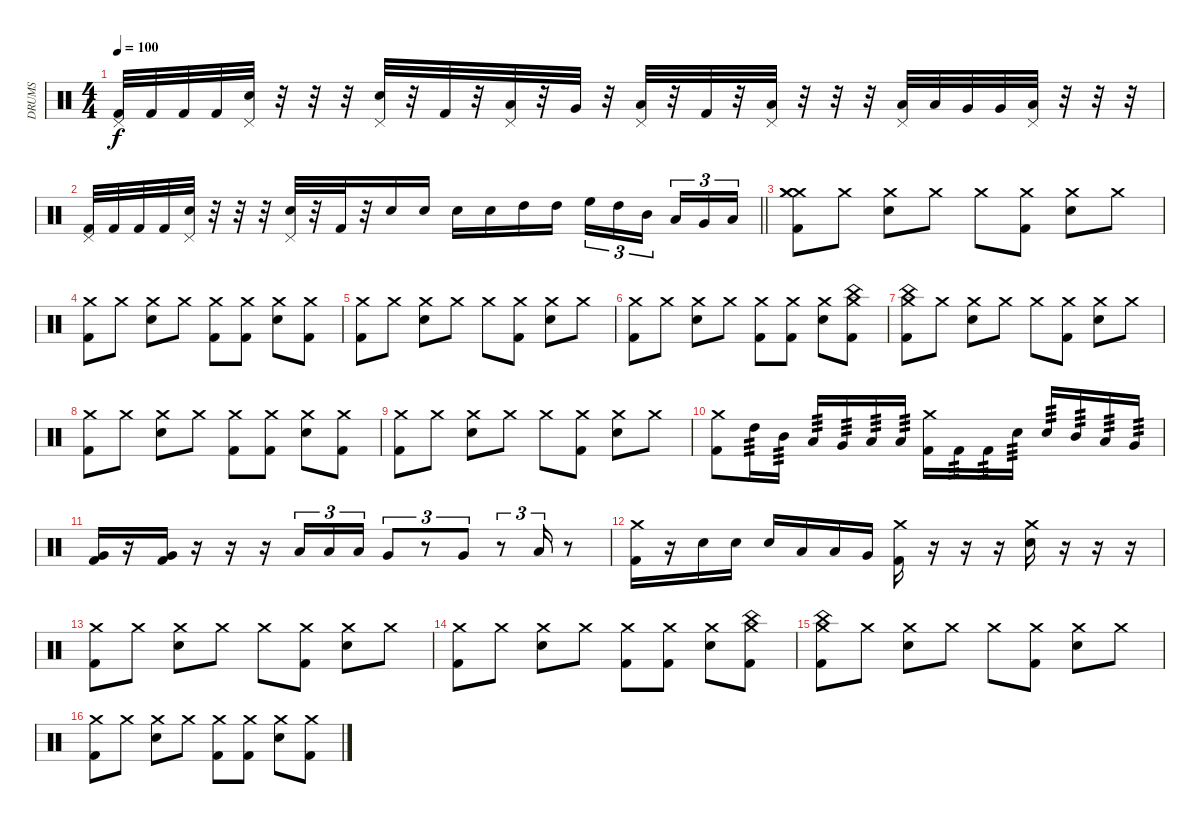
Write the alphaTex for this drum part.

\track ("DRUMS" "DRUMS") {instrument percussion}
\staff {score}
\articulation defaults
\ts (4 4)
\tempo 100
\clef neutral
\ks c
("Pedal Hi-Hat (hit)" "Kick (hit) 2").32{dy f} "Kick (hit) 2".32 "Kick (hit) 2".32 "Kick (hit) 2".32 ("Pedal Hi-Hat (hit)" "Electric Snare (hit)").32 r.32 r.32 r.32 ("Pedal Hi-Hat (hit)" "Electric Snare (hit)").32 r.32 "Kick (hit) 2".32 r.32 ("Pedal Hi-Hat (hit)" "Low Tom (hit)").32 r.32 "Very Low Tom (hit)".32 r.32 ("Pedal Hi-Hat (hit)" "Low Floor Tom (hit)").32 r.32 "Kick (hit) 2".32 r.32 ("Pedal Hi-Hat (hit)" "Low Floor Tom (hit)").32 r.32 r.32 r.32 ("Pedal Hi-Hat (hit)" "Low Tom (hit)").32 "Low Tom (hit)".32 "Very Low Tom (hit)".32 "Very Low Tom (hit)".32 ("Pedal Hi-Hat (hit)" "Low Floor Tom (hit)").32 r.32 r.32 r.32 |
\barLineRight lightlight
("Pedal Hi-Hat (hit)" "Kick (hit) 2").32 "Kick (hit) 2".32 "Kick (hit) 2".32 "Kick (hit) 2".32 ("Pedal Hi-Hat (hit)" "Electric Snare (hit)").32 r.32 r.32 r.32 ("Pedal Hi-Hat (hit)" "Electric Snare (hit)").32 r.32 "Kick (hit) 2".32 r.32 "Electric Snare (hit)".16 "Electric Snare (hit)".16 "Electric Snare (hit)".16 "Electric Snare (hit)".16 "High Tom (hit)".16 "High Tom (hit)".16 "High Floor Tom (hit)".16{tu (3 2)} "High Tom (hit)".16{tu (3 2)} "Mid Tom (hit)".16{tu (3 2) beam splitsecondary} "Low Tom (hit)".16{tu (3 2)} "Very Low Tom (hit)".16{tu (3 2)} "Low Floor Tom (hit)".16{tu (3 2)} |
("Crash medium (hit)" "Crash medium (hit)" "Crash medium (hit)" "Kick (hit) 2").8 "Crash medium (hit)".8 ("Crash medium (hit)" "Electric Snare (hit)").8 "Crash medium (hit)".8 "Crash medium (hit)".8 ("Crash medium (hit)" "Kick (hit) 2").8 ("Crash medium (hit)" "Electric Snare (hit)").8 "Crash medium (hit)".8 |
("Crash medium (hit)" "Kick (hit) 2").8 "Crash medium (hit)".8 ("Crash medium (hit)" "Electric Snare (hit)").8 "Crash medium (hit)".8 ("Crash medium (hit)" "Kick (hit) 2").8 ("Crash medium (hit)" "Kick (hit) 2").8 ("Crash medium (hit)" "Electric Snare (hit)").8 ("Crash medium (hit)" "Kick (hit) 2").8 |
("Crash medium (hit)" "Kick (hit) 2").8 "Crash medium (hit)".8 ("Crash medium (hit)" "Electric Snare (hit)").8 "Crash medium (hit)".8 "Crash medium (hit)".8 ("Crash medium (hit)" "Kick (hit) 2").8 ("Crash medium (hit)" "Electric Snare (hit)").8 "Crash medium (hit)".8 |
("Crash medium (hit)" "Kick (hit) 2").8 "Crash medium (hit)".8 ("Crash medium (hit)" "Electric Snare (hit)").8 "Crash medium (hit)".8 ("Crash medium (hit)" "Kick (hit) 2").8 ("Crash medium (hit)" "Kick (hit) 2").8 ("Crash medium (hit)" "Electric Snare (hit)").8 ("Crash medium (hit)" "China (hit)" "Kick (hit) 2").8 |
("Crash medium (hit)" "China (hit)" "Kick (hit) 2").8 "Crash medium (hit)".8 ("Crash medium (hit)" "Electric Snare (hit)").8 "Crash medium (hit)".8 "Crash medium (hit)".8 ("Crash medium (hit)" "Kick (hit) 2").8 ("Crash medium (hit)" "Electric Snare (hit)").8 "Crash medium (hit)".8 |
("Crash medium (hit)" "Kick (hit) 2").8 "Crash medium (hit)".8 ("Crash medium (hit)" "Electric Snare (hit)").8 "Crash medium (hit)".8 ("Crash medium (hit)" "Kick (hit) 2").8 ("Crash medium (hit)" "Kick (hit) 2").8 ("Crash medium (hit)" "Electric Snare (hit)").8 ("Crash medium (hit)" "Kick (hit) 2").8 |
("Crash medium (hit)" "Kick (hit) 2").8 "Crash medium (hit)".8 ("Crash medium (hit)" "Electric Snare (hit)").8 "Crash medium (hit)".8 "Crash medium (hit)".8 ("Crash medium (hit)" "Kick (hit) 2").8 ("Crash medium (hit)" "Electric Snare (hit)").8 "Crash medium (hit)".8 |
("Crash medium (hit)" "Kick (hit) 2").8 "High Tom (hit)".16{tp 3} "Mid Tom (hit)".16{tp 3} "Low Tom (hit)".16{tp 3} "Very Low Tom (hit)".16{tp 3} "Low Floor Tom (hit)".16{tp 3} "Low Floor Tom (hit)".16{tp 3} ("Crash medium (hit)" "Kick (hit) 2").16 "Kick (hit) 2".16{tp 3} "Kick (hit) 2".16{tp 3} "Electric Snare (hit)".16{tp 3} "Electric Snare (hit)".16{tp 3} "Mid Tom (hit)".16{tp 3} "Low Tom (hit)".16{tp 3} "Very Low Tom (hit)".16{tp 3} |
("Very Low Tom (hit)" "Kick (hit) 2").16 r.16 ("Very Low Tom (hit)" "Kick (hit) 2").16 r.16 r.16 r.16 "Low Tom (hit)".16{tu (3 2)} "Low Tom (hit)".16{tu (3 2)} "Low Tom (hit)".16{tu (3 2)} "Very Low Tom (hit)".8{tu (3 2)} r.8{tu (3 2)} "Very Low Tom (hit)".8{tu (3 2)} r.8{tu (3 2)} "Low Floor Tom (hit)".16{tu (3 2)} r.8 |
("Crash medium (hit)" "Kick (hit) 2").16 r.16 "Electric Snare (hit)".16 "Electric Snare (hit)".16 "Electric Snare (hit)".16 "Low Tom (hit)".16 "Low Tom (hit)".16 "Very Low Tom (hit)".16 ("Crash medium (hit)" "Kick (hit) 2").16 r.16 r.16 r.16 ("Crash medium (hit)" "Electric Snare (hit)").16 r.16 r.16 r.16 |
("Crash medium (hit)" "Kick (hit) 2").8 "Crash medium (hit)".8 ("Crash medium (hit)" "Electric Snare (hit)").8 "Crash medium (hit)".8 "Crash medium (hit)".8 ("Crash medium (hit)" "Kick (hit) 2").8 ("Crash medium (hit)" "Electric Snare (hit)").8 "Crash medium (hit)".8 |
("Crash medium (hit)" "Kick (hit) 2").8 "Crash medium (hit)".8 ("Crash medium (hit)" "Electric Snare (hit)").8 "Crash medium (hit)".8 ("Crash medium (hit)" "Kick (hit) 2").8 ("Crash medium (hit)" "Kick (hit) 2").8 ("Crash medium (hit)" "Electric Snare (hit)").8 ("Crash medium (hit)" "China (hit)" "Kick (hit) 2").8 |
("Crash medium (hit)" "China (hit)" "Kick (hit) 2").8 "Crash medium (hit)".8 ("Crash medium (hit)" "Electric Snare (hit)").8 "Crash medium (hit)".8 "Crash medium (hit)".8 ("Crash medium (hit)" "Kick (hit) 2").8 ("Crash medium (hit)" "Electric Snare (hit)").8 "Crash medium (hit)".8 |
("Crash medium (hit)" "Kick (hit) 2").8 "Crash medium (hit)".8 ("Crash medium (hit)" "Electric Snare (hit)").8 "Crash medium (hit)".8 ("Crash medium (hit)" "Kick (hit) 2").8 ("Crash medium (hit)" "Kick (hit) 2").8 ("Crash medium (hit)" "Electric Snare (hit)").8 ("Crash medium (hit)" "Kick (hit) 2").8
